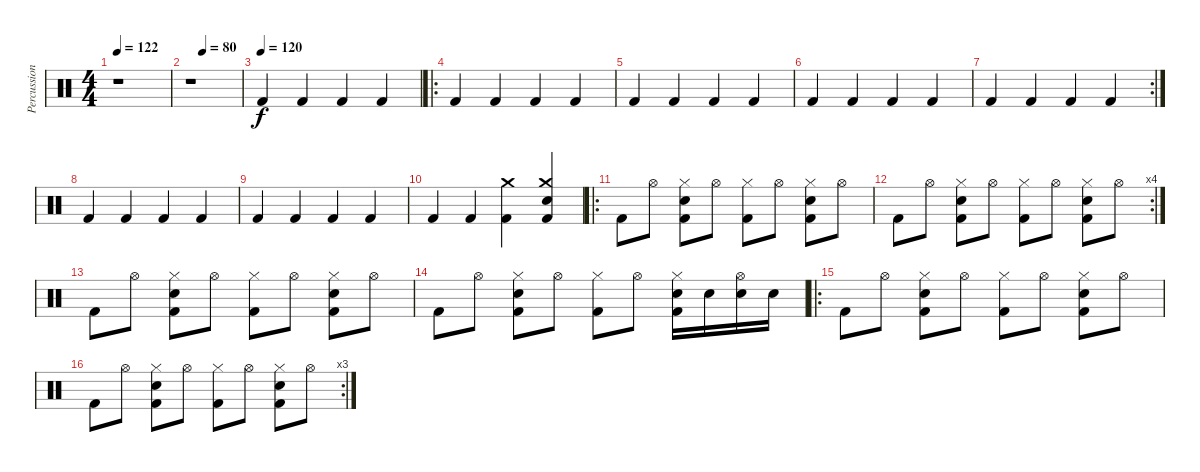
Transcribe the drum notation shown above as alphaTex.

\track ("Percussions" "Percussion") {instrument percussion}
\staff {score}
\articulation defaults
\ts (4 4)
\tempo 122
\clef neutral
\ks c
r.1{dy f} |
\tempo (80 0.25)
r.1 |
\tempo (120)
"Kick (hit) 2".4 "Kick (hit) 2".4 "Kick (hit) 2".4 "Kick (hit) 2".4 |
\ro "Kick (hit) 2".4 "Kick (hit) 2".4 "Kick (hit) 2".4 "Kick (hit) 2".4
|
"Kick (hit) 2".4 "Kick (hit) 2".4 "Kick (hit) 2".4 "Kick (hit) 2".4 |
"Kick (hit) 2".4 "Kick (hit) 2".4 "Kick (hit) 2".4 "Kick (hit) 2".4 |
\rc 2 "Kick (hit) 2".4 "Kick (hit) 2".4 "Kick (hit) 2".4 "Kick (hit) 2".4
|
"Kick (hit) 2".4 "Kick (hit) 2".4 "Kick (hit) 2".4 "Kick (hit) 2".4 |
"Kick (hit) 2".4 "Kick (hit) 2".4 "Kick (hit) 2".4 "Kick (hit) 2".4 |
"Kick (hit) 2".4 "Kick (hit) 2".4 ("Kick (hit) 2" "Crash medium (hit)").4 ("Kick (hit) 2" "Crash medium (hit)" "Electric Snare (hit)").4 |
\ro "Kick (hit) 2".8 "Hi-Hat (open)".8
("Kick (hit) 2" "Hi-Hat (closed)" "Electric Snare (hit)").8 "Hi-Hat (open)".8 ("Kick (hit) 2" "Hi-Hat (closed)").8 "Hi-Hat (open)".8 ("Kick (hit) 2" "Hi-Hat (closed)" "Electric Snare (hit)").8 "Hi-Hat (open)".8 |
\rc 4 "Kick (hit) 2".8 "Hi-Hat (open)".8
("Kick (hit) 2" "Hi-Hat (closed)" "Electric Snare (hit)").8 "Hi-Hat (open)".8 ("Kick (hit) 2" "Hi-Hat (closed)").8 "Hi-Hat (open)".8 ("Kick (hit) 2" "Hi-Hat (closed)" "Electric Snare (hit)").8 "Hi-Hat (open)".8 |
"Kick (hit) 2".8 "Hi-Hat (open)".8 ("Kick (hit) 2" "Hi-Hat (closed)" "Electric Snare (hit)").8 "Hi-Hat (open)".8 ("Kick (hit) 2" "Hi-Hat (closed)").8 "Hi-Hat (open)".8 ("Kick (hit) 2" "Hi-Hat (closed)" "Electric Snare (hit)").8 "Hi-Hat (open)".8 |
"Kick (hit) 2".8 "Hi-Hat (open)".8 ("Kick (hit) 2" "Hi-Hat (closed)" "Electric Snare (hit)").8 "Hi-Hat (open)".8 ("Kick (hit) 2" "Hi-Hat (closed)").8 "Hi-Hat (open)".8 ("Kick (hit) 2" "Hi-Hat (closed)" "Electric Snare (hit)").16 "Electric Snare (hit)".16 ("Hi-Hat (open)" "Electric Snare (hit)").16 "Electric Snare (hit)".16 |
\ro "Kick (hit) 2".8 "Hi-Hat (open)".8
("Kick (hit) 2" "Hi-Hat (closed)" "Electric Snare (hit)").8 "Hi-Hat (open)".8 ("Kick (hit) 2" "Hi-Hat (closed)").8 "Hi-Hat (open)".8 ("Kick (hit) 2" "Hi-Hat (closed)" "Electric Snare (hit)").8 "Hi-Hat (open)".8 |
\rc 3 "Kick (hit) 2".8 "Hi-Hat (open)".8
("Kick (hit) 2" "Hi-Hat (closed)" "Electric Snare (hit)").8 "Hi-Hat (open)".8 ("Kick (hit) 2" "Hi-Hat (closed)").8 "Hi-Hat (open)".8 ("Kick (hit) 2" "Hi-Hat (closed)" "Electric Snare (hit)").8 "Hi-Hat (open)".8
